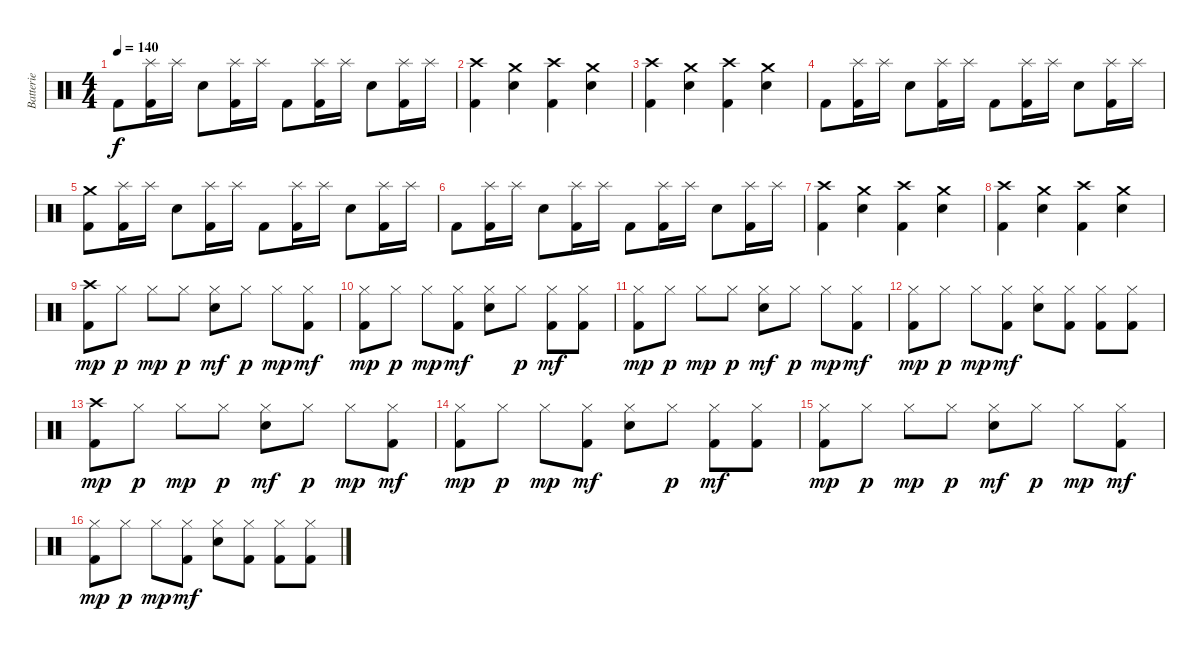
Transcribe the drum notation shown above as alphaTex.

\track ("Batterie" "Batterie") {instrument percussion}
\staff {score}
\articulation defaults
\ts (4 4)
\tempo 140
\clef neutral
\ks c "Kick (hit) 2".8{dy f}
("Splash (hit)" "Kick (hit) 2").16 "Splash (hit)".16 "Electric Snare (hit)".8 ("Splash (hit)" "Kick (hit) 2").16 "Splash (hit)".16 "Kick (hit) 2".8 ("Splash (hit)" "Kick (hit) 2").16 "Splash (hit)".16 "Electric Snare (hit)".8 ("Splash (hit)" "Kick (hit) 2").16 "Splash (hit)".16 |
("Crash high (hit)" "Kick (hit) 2").4 ("Crash medium (hit)" "Electric Snare (hit)").4 ("Crash high (hit)" "Kick (hit) 2").4 ("Crash medium (hit)" "Electric Snare (hit)").4 |
("Crash high (hit)" "Kick (hit) 2").4 ("Crash medium (hit)" "Electric Snare (hit)").4 ("Crash high (hit)" "Kick (hit) 2").4 ("Crash medium (hit)" "Electric Snare (hit)").4 |
"Kick (hit) 2".8 ("Splash (hit)" "Kick (hit) 2").16 "Splash (hit)".16 "Electric Snare (hit)".8 ("Splash (hit)" "Kick (hit) 2").16 "Splash (hit)".16 "Kick (hit) 2".8 ("Splash (hit)" "Kick (hit) 2").16 "Splash (hit)".16 "Electric Snare (hit)".8 ("Splash (hit)" "Kick (hit) 2").16 "Splash (hit)".16 |
("Crash medium (hit)" "Kick (hit) 2").8 ("Splash (hit)" "Kick (hit) 2").16 "Splash (hit)".16 "Electric Snare (hit)".8 ("Splash (hit)" "Kick (hit) 2").16 "Splash (hit)".16 "Kick (hit) 2".8 ("Splash (hit)" "Kick (hit) 2").16 "Splash (hit)".16 "Electric Snare (hit)".8 ("Splash (hit)" "Kick (hit) 2").16 "Splash (hit)".16 |
"Kick (hit) 2".8 ("Splash (hit)" "Kick (hit) 2").16 "Splash (hit)".16 "Electric Snare (hit)".8 ("Splash (hit)" "Kick (hit) 2").16 "Splash (hit)".16 "Kick (hit) 2".8 ("Splash (hit)" "Kick (hit) 2").16 "Splash (hit)".16 "Electric Snare (hit)".8 ("Splash (hit)" "Kick (hit) 2").16 "Splash (hit)".16 |
("Crash high (hit)" "Kick (hit) 2").4 ("Crash medium (hit)" "Electric Snare (hit)").4 ("Crash high (hit)" "Kick (hit) 2").4 ("Crash medium (hit)" "Electric Snare (hit)").4 |
("Crash high (hit)" "Kick (hit) 2").4 ("Crash medium (hit)" "Electric Snare (hit)").4 ("Crash high (hit)" "Kick (hit) 2").4 ("Crash medium (hit)" "Electric Snare (hit)").4 |
("Crash high (hit)" "Kick (hit) 2").8{dy mp} "Hi-Hat (closed)".8{dy p} "Hi-Hat (closed)".8{dy mp} "Hi-Hat (closed)".8{dy p} ("Hi-Hat (closed)" "Electric Snare (hit)").8{dy mf} "Hi-Hat (closed)".8{dy p} "Hi-Hat (closed)".8{dy mp} ("Hi-Hat (closed)" "Kick (hit) 2").8{dy mf} |
("Hi-Hat (closed)" "Kick (hit) 2").8{dy mp} "Hi-Hat (closed)".8{dy p} "Hi-Hat (closed)".8{dy mp} ("Hi-Hat (closed)" "Kick (hit) 2").8{dy mf} ("Hi-Hat (closed)" "Electric Snare (hit)").8 "Hi-Hat (closed)".8{dy p} ("Hi-Hat (closed)" "Kick (hit) 2").8{dy mf} ("Hi-Hat (closed)" "Kick (hit) 2").8 |
("Hi-Hat (closed)" "Kick (hit) 2").8{dy mp} "Hi-Hat (closed)".8{dy p} "Hi-Hat (closed)".8{dy mp} "Hi-Hat (closed)".8{dy p} ("Hi-Hat (closed)" "Electric Snare (hit)").8{dy mf} "Hi-Hat (closed)".8{dy p} "Hi-Hat (closed)".8{dy mp} ("Hi-Hat (closed)" "Kick (hit) 2").8{dy mf} |
("Hi-Hat (closed)" "Kick (hit) 2").8{dy mp} "Hi-Hat (closed)".8{dy p} "Hi-Hat (closed)".8{dy mp} ("Hi-Hat (closed)" "Kick (hit) 2").8{dy mf} ("Hi-Hat (closed)" "Electric Snare (hit)").8 ("Hi-Hat (closed)" "Kick (hit) 2").8 ("Hi-Hat (closed)" "Kick (hit) 2").8 ("Hi-Hat (closed)" "Kick (hit) 2").8 |
("Crash high (hit)" "Kick (hit) 2").8{dy mp} "Hi-Hat (closed)".8{dy p} "Hi-Hat (closed)".8{dy mp} "Hi-Hat (closed)".8{dy p} ("Hi-Hat (closed)" "Electric Snare (hit)").8{dy mf} "Hi-Hat (closed)".8{dy p} "Hi-Hat (closed)".8{dy mp} ("Hi-Hat (closed)" "Kick (hit) 2").8{dy mf} |
("Hi-Hat (closed)" "Kick (hit) 2").8{dy mp} "Hi-Hat (closed)".8{dy p} "Hi-Hat (closed)".8{dy mp} ("Hi-Hat (closed)" "Kick (hit) 2").8{dy mf} ("Hi-Hat (closed)" "Electric Snare (hit)").8 "Hi-Hat (closed)".8{dy p} ("Hi-Hat (closed)" "Kick (hit) 2").8{dy mf} ("Hi-Hat (closed)" "Kick (hit) 2").8 |
("Hi-Hat (closed)" "Kick (hit) 2").8{dy mp} "Hi-Hat (closed)".8{dy p} "Hi-Hat (closed)".8{dy mp} "Hi-Hat (closed)".8{dy p} ("Hi-Hat (closed)" "Electric Snare (hit)").8{dy mf} "Hi-Hat (closed)".8{dy p} "Hi-Hat (closed)".8{dy mp} ("Hi-Hat (closed)" "Kick (hit) 2").8{dy mf} |
("Hi-Hat (closed)" "Kick (hit) 2").8{dy mp} "Hi-Hat (closed)".8{dy p} "Hi-Hat (closed)".8{dy mp} ("Hi-Hat (closed)" "Kick (hit) 2").8{dy mf} ("Hi-Hat (closed)" "Electric Snare (hit)").8 ("Hi-Hat (closed)" "Kick (hit) 2").8 ("Hi-Hat (closed)" "Kick (hit) 2").8 ("Hi-Hat (closed)" "Kick (hit) 2").8
